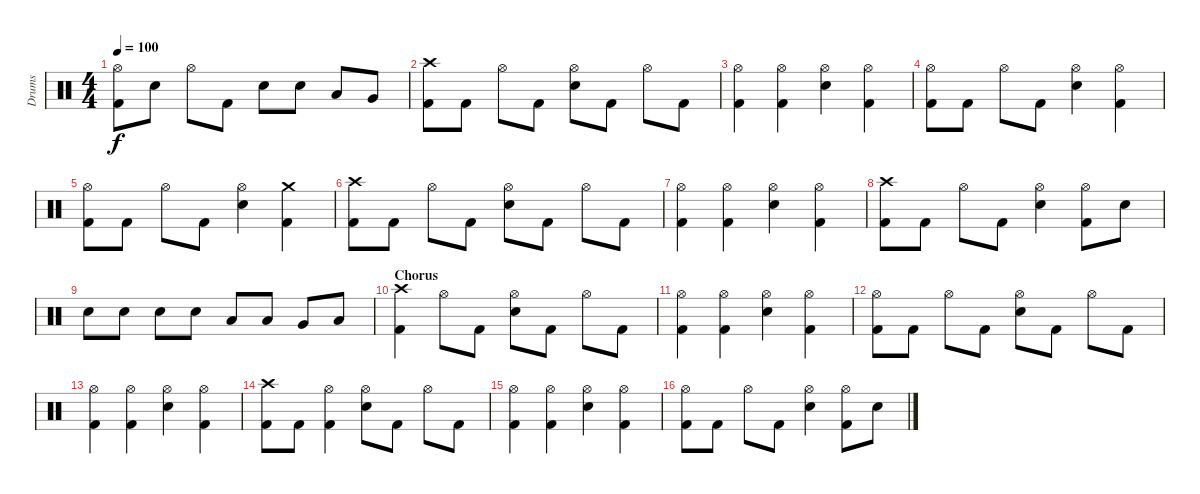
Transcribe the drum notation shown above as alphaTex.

\track ("Drums" "Drums") {instrument percussion}
\staff {score}
\articulation defaults
\ts (4 4)
\tempo 100
\clef neutral
\ks c
("Hi-Hat (open)" "Kick (hit) 2").8{dy f} "Electric Snare (hit)".8 "Hi-Hat (open)".8 "Kick (hit) 2".8 "Electric Snare (hit)".8 "Electric Snare (hit)".8 "Low Tom (hit)".8 "Very Low Tom (hit)".8 |
("Crash high (hit)" "Kick (hit) 2").8 "Kick (hit) 2".8 "Hi-Hat (open)".8 "Kick (hit) 2".8 ("Hi-Hat (open)" "Electric Snare (hit)").8 "Kick (hit) 2".8 "Hi-Hat (open)".8 "Kick (hit) 2".8 |
("Hi-Hat (open)" "Kick (hit) 2").4 ("Hi-Hat (open)" "Kick (hit) 2").4 ("Hi-Hat (open)" "Electric Snare (hit)").4 ("Hi-Hat (open)" "Kick (hit) 2").4 |
("Hi-Hat (open)" "Kick (hit) 2").8 "Kick (hit) 2".8 "Hi-Hat (open)".8 "Kick (hit) 2".8 ("Hi-Hat (open)" "Electric Snare (hit)").4 ("Hi-Hat (open)" "Kick (hit) 2").4 |
("Hi-Hat (open)" "Kick (hit) 2").8 "Kick (hit) 2".8 "Hi-Hat (open)".8 "Kick (hit) 2".8 ("Hi-Hat (open)" "Electric Snare (hit)").4 ("Crash medium (hit)" "Kick (hit) 2").4 |
("Crash high (hit)" "Kick (hit) 2").8 "Kick (hit) 2".8 "Hi-Hat (open)".8 "Kick (hit) 2".8 ("Hi-Hat (open)" "Electric Snare (hit)").8 "Kick (hit) 2".8 "Hi-Hat (open)".8 "Kick (hit) 2".8 |
("Hi-Hat (open)" "Kick (hit) 2").4 ("Hi-Hat (open)" "Kick (hit) 2").4 ("Hi-Hat (open)" "Electric Snare (hit)").4 ("Hi-Hat (open)" "Kick (hit) 2").4 |
("Crash high (hit)" "Kick (hit) 2").8 "Kick (hit) 2".8 "Hi-Hat (open)".8 "Kick (hit) 2".8 ("Hi-Hat (open)" "Electric Snare (hit)").4 ("Hi-Hat (open)" "Kick (hit) 2").8 "Electric Snare (hit)".8 |
"Electric Snare (hit)".8 "Electric Snare (hit)".8 "Electric Snare (hit)".8 "Electric Snare (hit)".8 "Low Tom (hit)".8 "Low Tom (hit)".8 "Very Low Tom (hit)".8 "Low Floor Tom (hit)".8 |
\section ("" "Chorus")
("Crash high (hit)" "Kick (hit) 2").4 "Hi-Hat (open)".8 "Kick (hit) 2".8 ("Hi-Hat (open)" "Electric Snare (hit)").8 "Kick (hit) 2".8 "Hi-Hat (open)".8 "Kick (hit) 2".8 |
("Hi-Hat (open)" "Kick (hit) 2").4 ("Hi-Hat (open)" "Kick (hit) 2").4 ("Hi-Hat (open)" "Electric Snare (hit)").4 ("Hi-Hat (open)" "Kick (hit) 2").4 |
("Hi-Hat (open)" "Kick (hit) 2").8 "Kick (hit) 2".8 "Hi-Hat (open)".8 "Kick (hit) 2".8 ("Hi-Hat (open)" "Electric Snare (hit)").8 "Kick (hit) 2".8 "Hi-Hat (open)".8 "Kick (hit) 2".8 |
("Hi-Hat (open)" "Kick (hit) 2").4 ("Hi-Hat (open)" "Kick (hit) 2").4 ("Hi-Hat (open)" "Electric Snare (hit)").4 ("Hi-Hat (open)" "Kick (hit) 2").4 |
("Crash high (hit)" "Kick (hit) 2").8 "Kick (hit) 2".8 ("Hi-Hat (open)" "Kick (hit) 2").4 ("Hi-Hat (open)" "Electric Snare (hit)").8 "Kick (hit) 2".8 "Hi-Hat (open)".8 "Kick (hit) 2".8 |
("Hi-Hat (open)" "Kick (hit) 2").4 ("Hi-Hat (open)" "Kick (hit) 2").4 ("Hi-Hat (open)" "Electric Snare (hit)").4 ("Hi-Hat (open)" "Kick (hit) 2").4 |
("Hi-Hat (open)" "Kick (hit) 2").8 "Kick (hit) 2".8 "Hi-Hat (open)".8 "Kick (hit) 2".8 ("Hi-Hat (open)" "Electric Snare (hit)").4 ("Hi-Hat (open)" "Kick (hit) 2").8 "Electric Snare (hit)".8
